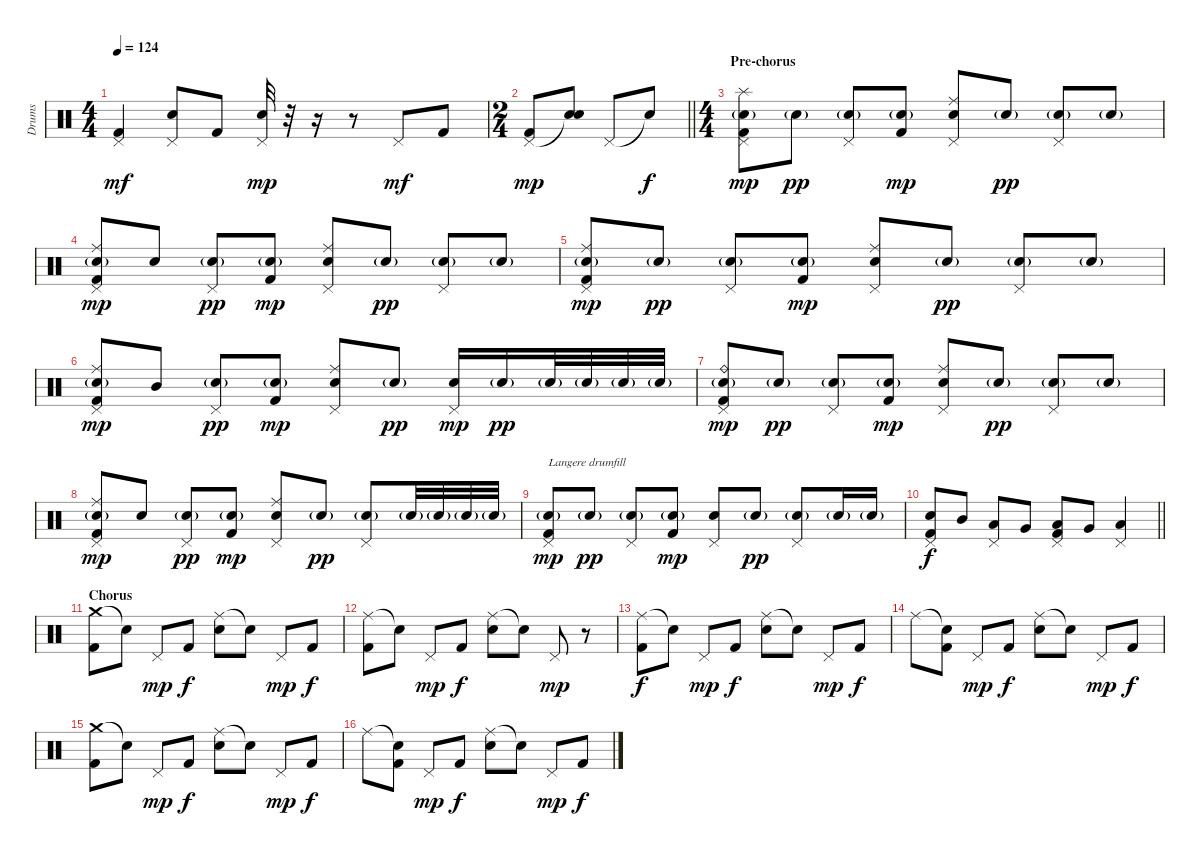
\track ("Drums" "Drums") {instrument percussion}
\staff {score}
\articulation defaults
\ts (4 4)
\tempo 124
\clef neutral
\ks c
("Pedal Hi-Hat (hit)" "Kick (hit) 2").4{dy mf} ("Pedal Hi-Hat (hit)" "Electric Snare (hit)").8 "Kick (hit) 2".8 ("Pedal Hi-Hat (hit)" "Electric Snare (hit)").32{dy mp} r.32 r.16 r.8 "Pedal Hi-Hat (hit)".8{dy mf} "Kick (hit) 2".8 |
\ts (2 4)
\barLineRight lightlight
("Pedal Hi-Hat (hit)" "Kick (hit) 2").8{dy mp} ("Snare (hit)"{t} "Electric Snare (hit)").8 "Pedal Hi-Hat (hit)".8 "Snare (hit)"{t}.8{dy f} |
\ts (4 4)
\section ("" "Pre-chorus")
("Pedal Hi-Hat (hit)" "Splash (hit)" "Electric Snare (hit)"{g} "Kick (hit) 2").8{dy mp} "Electric Snare (hit)"{g}.8{dy pp} ("Pedal Hi-Hat (hit)" "Electric Snare (hit)"{g}).8 ("Electric Snare (hit)"{g} "Kick (hit) 2").8{dy mp} ("Pedal Hi-Hat (hit)" "Ride (middle)" "Electric Snare (hit)").8 "Electric Snare (hit)"{g}.8{dy pp} ("Pedal Hi-Hat (hit)" "Electric Snare (hit)"{g}).8 "Electric Snare (hit)"{g}.8 |
("Pedal Hi-Hat (hit)" "Ride (middle)" "Electric Snare (hit)"{g} "Kick (hit) 2").8{dy mp} "Electric Snare (hit)".8 ("Pedal Hi-Hat (hit)" "Electric Snare (hit)"{g}).8{dy pp} ("Electric Snare (hit)"{g} "Kick (hit) 2").8{dy mp} ("Pedal Hi-Hat (hit)" "Ride (middle)" "Electric Snare (hit)").8 "Electric Snare (hit)"{g}.8{dy pp} ("Pedal Hi-Hat (hit)" "Electric Snare (hit)"{g}).8 "Electric Snare (hit)"{g}.8 |
("Pedal Hi-Hat (hit)" "Ride (middle)" "Electric Snare (hit)"{g} "Kick (hit) 2").8{dy mp} "Electric Snare (hit)"{g}.8{dy pp} ("Pedal Hi-Hat (hit)" "Electric Snare (hit)"{g}).8 ("Electric Snare (hit)"{g} "Kick (hit) 2").8{dy mp} ("Pedal Hi-Hat (hit)" "Ride (middle)" "Electric Snare (hit)").8 "Electric Snare (hit)"{g}.8{dy pp} ("Pedal Hi-Hat (hit)" "Electric Snare (hit)"{g}).8 "Electric Snare (hit)"{g}.8 |
("Pedal Hi-Hat (hit)" "Ride (middle)" "Electric Snare (hit)"{g} "Kick (hit) 2").8{dy mp} "Mid Tom (hit)".8 ("Pedal Hi-Hat (hit)" "Electric Snare (hit)"{g}).8{dy pp} ("Electric Snare (hit)"{g} "Kick (hit) 2").8{dy mp} ("Pedal Hi-Hat (hit)" "Ride (middle)" "Electric Snare (hit)").8 "Electric Snare (hit)"{g}.8{dy pp} ("Pedal Hi-Hat (hit)" "Electric Snare (hit)").16{dy mp} "Electric Snare (hit)"{g}.16{dy pp} "Electric Snare (hit)"{g}.32 "Electric Snare (hit)"{g}.32 "Electric Snare (hit)"{g}.32 "Electric Snare (hit)"{g}.32 |
("Pedal Hi-Hat (hit)" "Ride (bell)" "Electric Snare (hit)"{g} "Kick (hit) 2").8{dy mp} "Electric Snare (hit)"{g}.8{dy pp} ("Pedal Hi-Hat (hit)" "Electric Snare (hit)"{g}).8 ("Electric Snare (hit)"{g} "Kick (hit) 2").8{dy mp} ("Pedal Hi-Hat (hit)" "Ride (middle)" "Electric Snare (hit)").8 "Electric Snare (hit)"{g}.8{dy pp} ("Pedal Hi-Hat (hit)" "Electric Snare (hit)"{g}).8 "Electric Snare (hit)"{g}.8 |
("Pedal Hi-Hat (hit)" "Ride (middle)" "Electric Snare (hit)"{g} "Kick (hit) 2").8{dy mp} "Electric Snare (hit)".8 ("Pedal Hi-Hat (hit)" "Electric Snare (hit)"{g}).8{dy pp} ("Electric Snare (hit)"{g} "Kick (hit) 2").8{dy mp} ("Pedal Hi-Hat (hit)" "Ride (middle)" "Electric Snare (hit)").8 "Electric Snare (hit)"{g}.8{dy pp} ("Pedal Hi-Hat (hit)" "Electric Snare (hit)"{g}).8 "Electric Snare (hit)"{g}.32 "Electric Snare (hit)"{g}.32 "Electric Snare (hit)"{g}.32 "Electric Snare (hit)"{g}.32 |
("Pedal Hi-Hat (hit)" "Electric Snare (hit)"{g} "Kick (hit) 2").8{txt "Langere drumfill" dy mp} "Electric Snare (hit)"{g}.8{dy pp} ("Pedal Hi-Hat (hit)" "Electric Snare (hit)"{g}).8 ("Electric Snare (hit)"{g} "Kick (hit) 2").8{dy mp} ("Pedal Hi-Hat (hit)" "Electric Snare (hit)").8 "Electric Snare (hit)"{g}.8{dy pp} ("Pedal Hi-Hat (hit)" "Electric Snare (hit)"{g}).8 "Electric Snare (hit)"{g}.16 "Electric Snare (hit)"{g}.16 |
\barLineRight lightlight
("Pedal Hi-Hat (hit)" "Electric Snare (hit)" "Kick (hit) 2").8{dy f} "Mid Tom (hit)".8 ("Pedal Hi-Hat (hit)" "Low Tom (hit)").8 "Very Low Tom (hit)".8 ("Pedal Hi-Hat (hit)" "Low Tom (hit)" "Kick (hit) 2").8 "Very Low Tom (hit)".8 ("Pedal Hi-Hat (hit)" "Low Floor Tom (hit)").4 |
\section ("" "Chorus")
("Crash medium (hit)" "Kick (hit) 2").8 "Snare (hit)"{t}.8 "Pedal Hi-Hat (hit)".8{dy mp} "Kick (hit) 2".8{dy f} ("Ride (middle)" "Electric Snare (hit)").8 "Snare (hit)"{t}.8 "Pedal Hi-Hat (hit)".8{dy mp} "Kick (hit) 2".8{dy f} |
("Ride (middle)" "Kick (hit) 2").8 "Snare (hit)"{t}.8 "Pedal Hi-Hat (hit)".8{dy mp} "Kick (hit) 2".8{dy f} ("Ride (middle)" "Electric Snare (hit)").8 "Snare (hit)"{t}.8 "Pedal Hi-Hat (hit)".8{dy mp} r.8 |
("Ride (middle)" "Kick (hit) 2").8{dy f} "Snare (hit)"{t}.8 "Pedal Hi-Hat (hit)".8{dy mp} "Kick (hit) 2".8{dy f} ("Ride (middle)" "Electric Snare (hit)").8 "Snare (hit)"{t}.8 "Pedal Hi-Hat (hit)".8{dy mp} "Kick (hit) 2".8{dy f} |
"Ride (middle)".8 ("Snare (hit)"{t} "Kick (hit) 2").8 "Pedal Hi-Hat (hit)".8{dy mp} "Kick (hit) 2".8{dy f} ("Ride (middle)" "Electric Snare (hit)").8 "Snare (hit)"{t}.8 "Pedal Hi-Hat (hit)".8{dy mp} "Kick (hit) 2".8{dy f} |
("Crash medium (hit)" "Kick (hit) 2").8 "Snare (hit)"{t}.8 "Pedal Hi-Hat (hit)".8{dy mp} "Kick (hit) 2".8{dy f} ("Ride (middle)" "Electric Snare (hit)").8 "Snare (hit)"{t}.8 "Pedal Hi-Hat (hit)".8{dy mp} "Kick (hit) 2".8{dy f} |
"Ride (middle)".8 ("Snare (hit)"{t} "Kick (hit) 2").8 "Pedal Hi-Hat (hit)".8{dy mp} "Kick (hit) 2".8{dy f} ("Ride (middle)" "Electric Snare (hit)").8 "Snare (hit)"{t}.8 "Pedal Hi-Hat (hit)".8{dy mp} "Kick (hit) 2".8{dy f}
